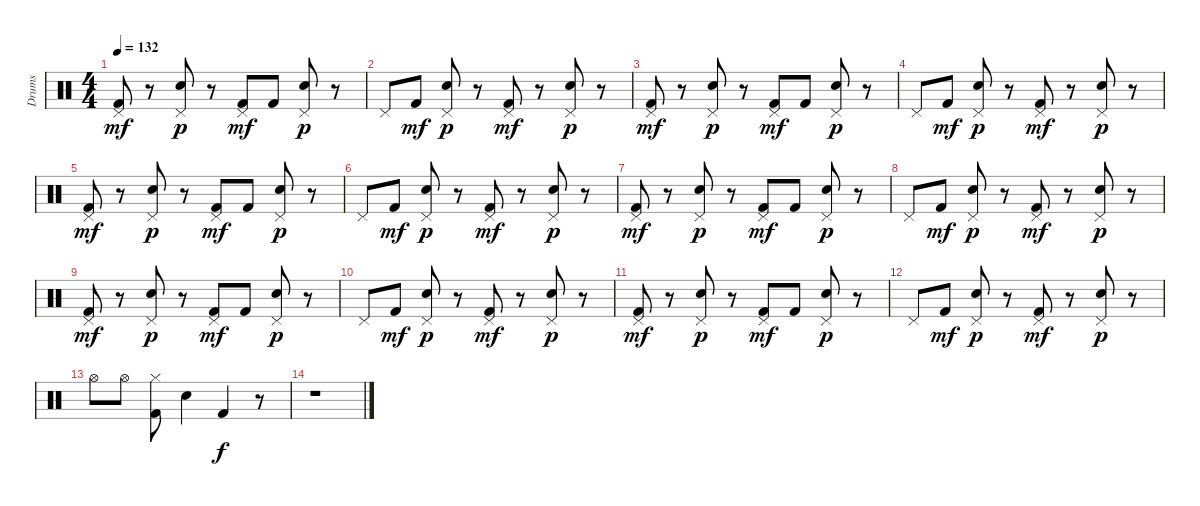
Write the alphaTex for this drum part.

\track ("Drums" "Drums") {instrument percussion}
\staff {score}
\articulation defaults
\ts (4 4)
\tempo 132
\clef neutral
\ks c
("Pedal Hi-Hat (hit)" "Kick (hit) 2").8{dy mf} r.8 ("Pedal Hi-Hat (hit)" "Snare (hit) 2").8{dy p} r.8 ("Pedal Hi-Hat (hit)" "Kick (hit) 2").8{dy mf} "Kick (hit) 2".8 ("Pedal Hi-Hat (hit)" "Snare (hit) 2").8{dy p} r.8 |
"Pedal Hi-Hat (hit)".8 "Kick (hit) 2".8{dy mf} ("Pedal Hi-Hat (hit)" "Snare (hit) 2").8{dy p} r.8 ("Pedal Hi-Hat (hit)" "Kick (hit) 2").8{dy mf} r.8 ("Pedal Hi-Hat (hit)" "Snare (hit) 2").8{dy p} r.8 |
("Pedal Hi-Hat (hit)" "Kick (hit) 2").8{dy mf} r.8 ("Pedal Hi-Hat (hit)" "Snare (hit) 2").8{dy p} r.8 ("Pedal Hi-Hat (hit)" "Kick (hit) 2").8{dy mf} "Kick (hit) 2".8 ("Pedal Hi-Hat (hit)" "Snare (hit) 2").8{dy p} r.8 |
"Pedal Hi-Hat (hit)".8 "Kick (hit) 2".8{dy mf} ("Pedal Hi-Hat (hit)" "Snare (hit) 2").8{dy p} r.8 ("Pedal Hi-Hat (hit)" "Kick (hit) 2").8{dy mf} r.8 ("Pedal Hi-Hat (hit)" "Snare (hit) 2").8{dy p} r.8 |
("Pedal Hi-Hat (hit)" "Kick (hit) 2").8{dy mf} r.8 ("Pedal Hi-Hat (hit)" "Snare (hit) 2").8{dy p} r.8 ("Pedal Hi-Hat (hit)" "Kick (hit) 2").8{dy mf} "Kick (hit) 2".8 ("Pedal Hi-Hat (hit)" "Snare (hit) 2").8{dy p} r.8 |
"Pedal Hi-Hat (hit)".8 "Kick (hit) 2".8{dy mf} ("Pedal Hi-Hat (hit)" "Snare (hit) 2").8{dy p} r.8 ("Pedal Hi-Hat (hit)" "Kick (hit) 2").8{dy mf} r.8 ("Pedal Hi-Hat (hit)" "Snare (hit) 2").8{dy p} r.8 |
("Pedal Hi-Hat (hit)" "Kick (hit) 2").8{dy mf} r.8 ("Pedal Hi-Hat (hit)" "Snare (hit) 2").8{dy p} r.8 ("Pedal Hi-Hat (hit)" "Kick (hit) 2").8{dy mf} "Kick (hit) 2".8 ("Pedal Hi-Hat (hit)" "Snare (hit) 2").8{dy p} r.8 |
"Pedal Hi-Hat (hit)".8 "Kick (hit) 2".8{dy mf} ("Pedal Hi-Hat (hit)" "Snare (hit) 2").8{dy p} r.8 ("Pedal Hi-Hat (hit)" "Kick (hit) 2").8{dy mf} r.8 ("Pedal Hi-Hat (hit)" "Snare (hit) 2").8{dy p} r.8 |
("Pedal Hi-Hat (hit)" "Kick (hit) 2").8{dy mf} r.8 ("Pedal Hi-Hat (hit)" "Snare (hit) 2").8{dy p} r.8 ("Pedal Hi-Hat (hit)" "Kick (hit) 2").8{dy mf} "Kick (hit) 2".8 ("Pedal Hi-Hat (hit)" "Snare (hit) 2").8{dy p} r.8 |
"Pedal Hi-Hat (hit)".8 "Kick (hit) 2".8{dy mf} ("Pedal Hi-Hat (hit)" "Snare (hit) 2").8{dy p} r.8 ("Pedal Hi-Hat (hit)" "Kick (hit) 2").8{dy mf} r.8 ("Pedal Hi-Hat (hit)" "Snare (hit) 2").8{dy p} r.8 |
("Pedal Hi-Hat (hit)" "Kick (hit) 2").8{dy mf} r.8 ("Pedal Hi-Hat (hit)" "Snare (hit) 2").8{dy p} r.8 ("Pedal Hi-Hat (hit)" "Kick (hit) 2").8{dy mf} "Kick (hit) 2".8 ("Pedal Hi-Hat (hit)" "Snare (hit) 2").8{dy p} r.8 |
"Pedal Hi-Hat (hit)".8 "Kick (hit) 2".8{dy mf} ("Pedal Hi-Hat (hit)" "Snare (hit) 2").8{dy p} r.8 ("Pedal Hi-Hat (hit)" "Kick (hit) 2").8{dy mf} r.8 ("Pedal Hi-Hat (hit)" "Snare (hit) 2").8{dy p} r.8 |
"Hi-Hat (open)".8 "Hi-Hat (open)".8 ("Hi-Hat (closed)" "Kick (hit) 2").8 "Snare (hit) 2".4 "Kick (hit) 2".4{dy f} r.8 |
r.1
